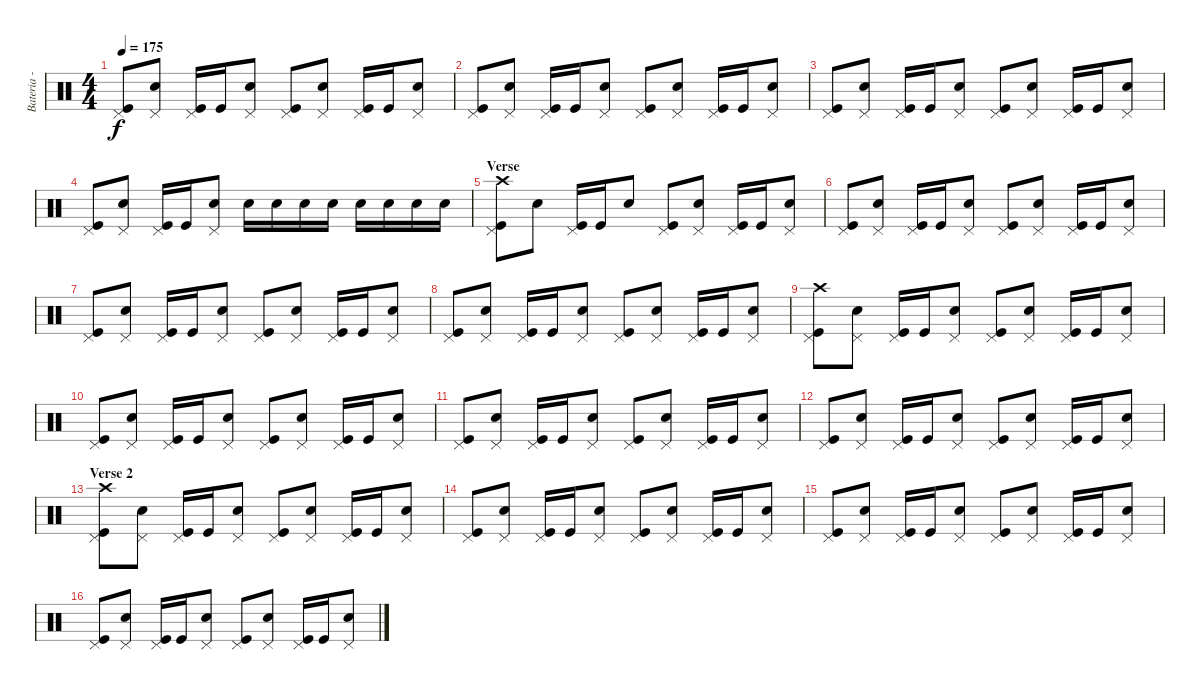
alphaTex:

\track ("Bateria - Larzon" "Bateria - ") {instrument percussion}
\staff {score}
\articulation defaults
\ts (4 4)
\tempo 175
\clef neutral
\ks c
("Kick (hit)" "Pedal Hi-Hat (hit)").8{dy f} ("Snare (hit) 2" "Pedal Hi-Hat (hit)").8 ("Kick (hit)" "Pedal Hi-Hat (hit)").16 "Kick (hit)".16 ("Snare (hit) 2" "Pedal Hi-Hat (hit)").8 ("Kick (hit)" "Pedal Hi-Hat (hit)").8 ("Snare (hit) 2" "Pedal Hi-Hat (hit)").8 ("Kick (hit)" "Pedal Hi-Hat (hit)").16 "Kick (hit)".16 ("Snare (hit) 2" "Pedal Hi-Hat (hit)").8 |
("Kick (hit)" "Pedal Hi-Hat (hit)").8 ("Snare (hit) 2" "Pedal Hi-Hat (hit)").8 ("Kick (hit)" "Pedal Hi-Hat (hit)").16 "Kick (hit)".16 ("Snare (hit) 2" "Pedal Hi-Hat (hit)").8 ("Kick (hit)" "Pedal Hi-Hat (hit)").8 ("Snare (hit) 2" "Pedal Hi-Hat (hit)").8 ("Kick (hit)" "Pedal Hi-Hat (hit)").16 "Kick (hit)".16 ("Snare (hit) 2" "Pedal Hi-Hat (hit)").8 |
("Kick (hit)" "Pedal Hi-Hat (hit)").8 ("Snare (hit) 2" "Pedal Hi-Hat (hit)").8 ("Kick (hit)" "Pedal Hi-Hat (hit)").16 "Kick (hit)".16 ("Snare (hit) 2" "Pedal Hi-Hat (hit)").8 ("Kick (hit)" "Pedal Hi-Hat (hit)").8 ("Snare (hit) 2" "Pedal Hi-Hat (hit)").8 ("Kick (hit)" "Pedal Hi-Hat (hit)").16 "Kick (hit)".16 ("Snare (hit) 2" "Pedal Hi-Hat (hit)").8 |
("Kick (hit)" "Pedal Hi-Hat (hit)").8 ("Snare (hit) 2" "Pedal Hi-Hat (hit)").8 ("Kick (hit)" "Pedal Hi-Hat (hit)").16 "Kick (hit)".16 ("Snare (hit) 2" "Pedal Hi-Hat (hit)").8 "Snare (hit) 2".16 "Snare (hit) 2".16 "Snare (hit) 2".16 "Snare (hit) 2".16 "Snare (hit) 2".16 "Snare (hit) 2".16 "Snare (hit) 2".16 "Snare (hit) 2".16 |
\section ("" "Verse")
("Kick (hit)" "Crash high (hit)" "Pedal Hi-Hat (hit)").8 "Snare (hit) 2".8 ("Kick (hit)" "Pedal Hi-Hat (hit)").16 "Kick (hit)".16 "Snare (hit) 2".8 ("Kick (hit)" "Pedal Hi-Hat (hit)").8 ("Snare (hit) 2" "Pedal Hi-Hat (hit)").8 ("Kick (hit)" "Pedal Hi-Hat (hit)").16 "Kick (hit)".16 ("Snare (hit) 2" "Pedal Hi-Hat (hit)").8 |
("Kick (hit)" "Pedal Hi-Hat (hit)").8 ("Snare (hit) 2" "Pedal Hi-Hat (hit)").8 ("Kick (hit)" "Pedal Hi-Hat (hit)").16 "Kick (hit)".16 ("Snare (hit) 2" "Pedal Hi-Hat (hit)").8 ("Kick (hit)" "Pedal Hi-Hat (hit)").8 ("Snare (hit) 2" "Pedal Hi-Hat (hit)").8 ("Kick (hit)" "Pedal Hi-Hat (hit)").16 "Kick (hit)".16 ("Snare (hit) 2" "Pedal Hi-Hat (hit)").8 |
("Kick (hit)" "Pedal Hi-Hat (hit)").8 ("Snare (hit) 2" "Pedal Hi-Hat (hit)").8 ("Kick (hit)" "Pedal Hi-Hat (hit)").16 "Kick (hit)".16 ("Snare (hit) 2" "Pedal Hi-Hat (hit)").8 ("Kick (hit)" "Pedal Hi-Hat (hit)").8 ("Snare (hit) 2" "Pedal Hi-Hat (hit)").8 ("Kick (hit)" "Pedal Hi-Hat (hit)").16 "Kick (hit)".16 ("Snare (hit) 2" "Pedal Hi-Hat (hit)").8 |
("Kick (hit)" "Pedal Hi-Hat (hit)").8 ("Snare (hit) 2" "Pedal Hi-Hat (hit)").8 ("Kick (hit)" "Pedal Hi-Hat (hit)").16 "Kick (hit)".16 ("Snare (hit) 2" "Pedal Hi-Hat (hit)").8 ("Kick (hit)" "Pedal Hi-Hat (hit)").8 ("Snare (hit) 2" "Pedal Hi-Hat (hit)").8 ("Kick (hit)" "Pedal Hi-Hat (hit)").16 "Kick (hit)".16 ("Snare (hit) 2" "Pedal Hi-Hat (hit)").8 |
("Crash high (hit)" "Kick (hit)" "Pedal Hi-Hat (hit)").8 ("Snare (hit) 2" "Pedal Hi-Hat (hit)").8 ("Kick (hit)" "Pedal Hi-Hat (hit)").16 "Kick (hit)".16 ("Snare (hit) 2" "Pedal Hi-Hat (hit)").8 ("Kick (hit)" "Pedal Hi-Hat (hit)").8 ("Snare (hit) 2" "Pedal Hi-Hat (hit)").8 ("Kick (hit)" "Pedal Hi-Hat (hit)").16 "Kick (hit)".16 ("Snare (hit) 2" "Pedal Hi-Hat (hit)").8 |
("Kick (hit)" "Pedal Hi-Hat (hit)").8 ("Snare (hit) 2" "Pedal Hi-Hat (hit)").8 ("Kick (hit)" "Pedal Hi-Hat (hit)").16 "Kick (hit)".16 ("Snare (hit) 2" "Pedal Hi-Hat (hit)").8 ("Kick (hit)" "Pedal Hi-Hat (hit)").8 ("Snare (hit) 2" "Pedal Hi-Hat (hit)").8 ("Kick (hit)" "Pedal Hi-Hat (hit)").16 "Kick (hit)".16 ("Snare (hit) 2" "Pedal Hi-Hat (hit)").8 |
("Kick (hit)" "Pedal Hi-Hat (hit)").8 ("Snare (hit) 2" "Pedal Hi-Hat (hit)").8 ("Kick (hit)" "Pedal Hi-Hat (hit)").16 "Kick (hit)".16 ("Snare (hit) 2" "Pedal Hi-Hat (hit)").8 ("Kick (hit)" "Pedal Hi-Hat (hit)").8 ("Snare (hit) 2" "Pedal Hi-Hat (hit)").8 ("Kick (hit)" "Pedal Hi-Hat (hit)").16 "Kick (hit)".16 ("Snare (hit) 2" "Pedal Hi-Hat (hit)").8 |
("Kick (hit)" "Pedal Hi-Hat (hit)").8 ("Snare (hit) 2" "Pedal Hi-Hat (hit)").8 ("Kick (hit)" "Pedal Hi-Hat (hit)").16 "Kick (hit)".16 ("Snare (hit) 2" "Pedal Hi-Hat (hit)").8 ("Kick (hit)" "Pedal Hi-Hat (hit)").8 ("Snare (hit) 2" "Pedal Hi-Hat (hit)").8 ("Kick (hit)" "Pedal Hi-Hat (hit)").16 "Kick (hit)".16 ("Snare (hit) 2" "Pedal Hi-Hat (hit)").8 |
\section ("" "Verse 2")
("Crash high (hit)" "Kick (hit)" "Pedal Hi-Hat (hit)").8 ("Snare (hit) 2" "Pedal Hi-Hat (hit)").8 ("Kick (hit)" "Pedal Hi-Hat (hit)").16 "Kick (hit)".16 ("Snare (hit) 2" "Pedal Hi-Hat (hit)").8 ("Kick (hit)" "Pedal Hi-Hat (hit)").8 ("Snare (hit) 2" "Pedal Hi-Hat (hit)").8 ("Kick (hit)" "Pedal Hi-Hat (hit)").16 "Kick (hit)".16 ("Snare (hit) 2" "Pedal Hi-Hat (hit)").8 |
("Kick (hit)" "Pedal Hi-Hat (hit)").8 ("Snare (hit) 2" "Pedal Hi-Hat (hit)").8 ("Kick (hit)" "Pedal Hi-Hat (hit)").16 "Kick (hit)".16 ("Snare (hit) 2" "Pedal Hi-Hat (hit)").8 ("Kick (hit)" "Pedal Hi-Hat (hit)").8 ("Snare (hit) 2" "Pedal Hi-Hat (hit)").8 ("Kick (hit)" "Pedal Hi-Hat (hit)").16 "Kick (hit)".16 ("Snare (hit) 2" "Pedal Hi-Hat (hit)").8 |
("Kick (hit)" "Pedal Hi-Hat (hit)").8 ("Snare (hit) 2" "Pedal Hi-Hat (hit)").8 ("Kick (hit)" "Pedal Hi-Hat (hit)").16 "Kick (hit)".16 ("Snare (hit) 2" "Pedal Hi-Hat (hit)").8 ("Kick (hit)" "Pedal Hi-Hat (hit)").8 ("Snare (hit) 2" "Pedal Hi-Hat (hit)").8 ("Kick (hit)" "Pedal Hi-Hat (hit)").16 "Kick (hit)".16 ("Snare (hit) 2" "Pedal Hi-Hat (hit)").8 |
("Kick (hit)" "Pedal Hi-Hat (hit)").8 ("Snare (hit) 2" "Pedal Hi-Hat (hit)").8 ("Kick (hit)" "Pedal Hi-Hat (hit)").16 "Kick (hit)".16 ("Snare (hit) 2" "Pedal Hi-Hat (hit)").8 ("Kick (hit)" "Pedal Hi-Hat (hit)").8 ("Snare (hit) 2" "Pedal Hi-Hat (hit)").8 ("Kick (hit)" "Pedal Hi-Hat (hit)").16 "Kick (hit)".16 ("Snare (hit) 2" "Pedal Hi-Hat (hit)").8
